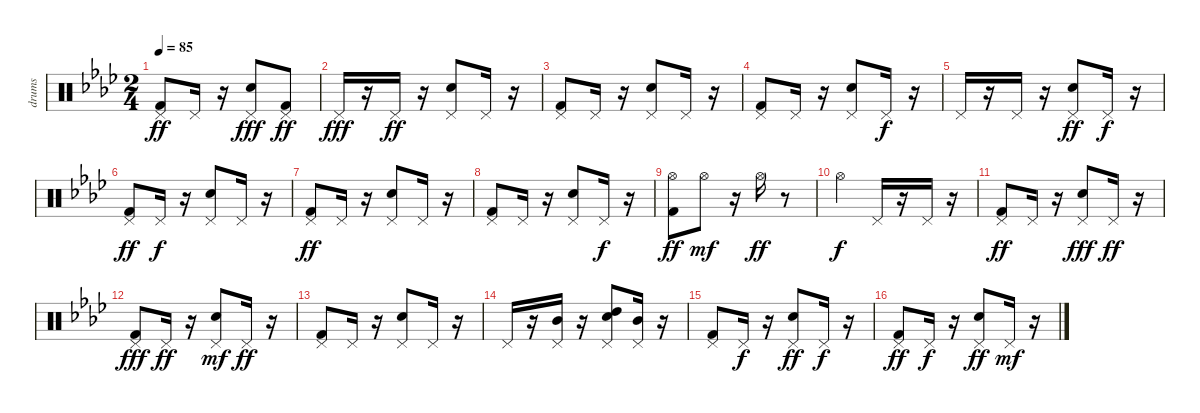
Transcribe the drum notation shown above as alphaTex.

\track ("drums" "drums") {instrument percussion}
\staff {score}
\articulation defaults
\ts (2 4)
\tempo 85
\clef neutral
\ks fminor
("Pedal Hi-Hat (hit)" "Kick (hit) 2").8{dy ff} "Pedal Hi-Hat (hit)".16 r.16 ("Electric Snare (hit)" "Pedal Hi-Hat (hit)").8{dy fff} ("Pedal Hi-Hat (hit)" "Kick (hit) 2").8{dy ff} |
"Pedal Hi-Hat (hit)".16{dy fff} r.16 "Pedal Hi-Hat (hit)".16{dy ff} r.16 ("Pedal Hi-Hat (hit)" "Electric Snare (hit)").8 "Pedal Hi-Hat (hit)".16 r.16 |
("Kick (hit) 2" "Pedal Hi-Hat (hit)").8 "Pedal Hi-Hat (hit)".16 r.16 ("Pedal Hi-Hat (hit)" "Electric Snare (hit)").8 "Pedal Hi-Hat (hit)".16 r.16 |
("Pedal Hi-Hat (hit)" "Kick (hit) 2").8 "Pedal Hi-Hat (hit)".16 r.16 ("Pedal Hi-Hat (hit)" "Electric Snare (hit)").8 "Pedal Hi-Hat (hit)".16{dy f} r.16 |
"Pedal Hi-Hat (hit)".16 r.16 "Pedal Hi-Hat (hit)".16 r.16 ("Electric Snare (hit)" "Pedal Hi-Hat (hit)").8{dy ff} "Pedal Hi-Hat (hit)".16{dy f} r.16 |
("Pedal Hi-Hat (hit)" "Kick (hit) 2").8{dy ff} "Pedal Hi-Hat (hit)".16{dy f} r.16 ("Pedal Hi-Hat (hit)" "Electric Snare (hit)").8 "Pedal Hi-Hat (hit)".16 r.16 |
("Pedal Hi-Hat (hit)" "Kick (hit) 2").8{dy ff} "Pedal Hi-Hat (hit)".16 r.16 ("Pedal Hi-Hat (hit)" "Electric Snare (hit)").8 "Pedal Hi-Hat (hit)".16 r.16 |
("Pedal Hi-Hat (hit)" "Kick (hit) 2").8 "Pedal Hi-Hat (hit)".16 r.16 ("Pedal Hi-Hat (hit)" "Electric Snare (hit)").8 "Pedal Hi-Hat (hit)".16{dy f} r.16 |
("Hi-Hat (open)" "Kick (hit) 2").8{dy ff} "Hi-Hat (open)".8{dy mf} r.16 "Hi-Hat (open)".16{dy ff} r.8 |
"Hi-Hat (open)".4{dy f} "Pedal Hi-Hat (hit)".16 r.16 "Pedal Hi-Hat (hit)".16 r.16 |
("Kick (hit) 2" "Pedal Hi-Hat (hit)").8{dy ff} "Pedal Hi-Hat (hit)".16 r.16 ("Electric Snare (hit)" "Pedal Hi-Hat (hit)").8{dy fff} "Pedal Hi-Hat (hit)".16{dy ff} r.16 |
("Kick (hit) 2" "Pedal Hi-Hat (hit)").8{dy fff} "Pedal Hi-Hat (hit)".16{dy ff} r.16 ("Electric Snare (hit)" "Pedal Hi-Hat (hit)").8{dy mf} "Pedal Hi-Hat (hit)".16{dy ff} r.16 |
("Kick (hit) 2" "Pedal Hi-Hat (hit)").8 "Pedal Hi-Hat (hit)".16 r.16 ("Electric Snare (hit)" "Pedal Hi-Hat (hit)").8 "Pedal Hi-Hat (hit)".16 r.16 |
"Pedal Hi-Hat (hit)".16 r.16 ("Mid Tom (hit)" "Pedal Hi-Hat (hit)").16 r.16 ("Electric Snare (hit)" "High Tom (hit)" "Pedal Hi-Hat (hit)").8 ("Mid Tom (hit)" "Pedal Hi-Hat (hit)").16 r.16 |
("Kick (hit) 2" "Pedal Hi-Hat (hit)").8 "Pedal Hi-Hat (hit)".16{dy f} r.16 ("Electric Snare (hit)" "Pedal Hi-Hat (hit)").8{dy ff} "Pedal Hi-Hat (hit)".16{dy f} r.16 |
("Kick (hit) 2" "Pedal Hi-Hat (hit)").8{dy ff} "Pedal Hi-Hat (hit)".16{dy f} r.16 ("Electric Snare (hit)" "Pedal Hi-Hat (hit)").8{dy ff} "Pedal Hi-Hat (hit)".16{dy mf} r.16
